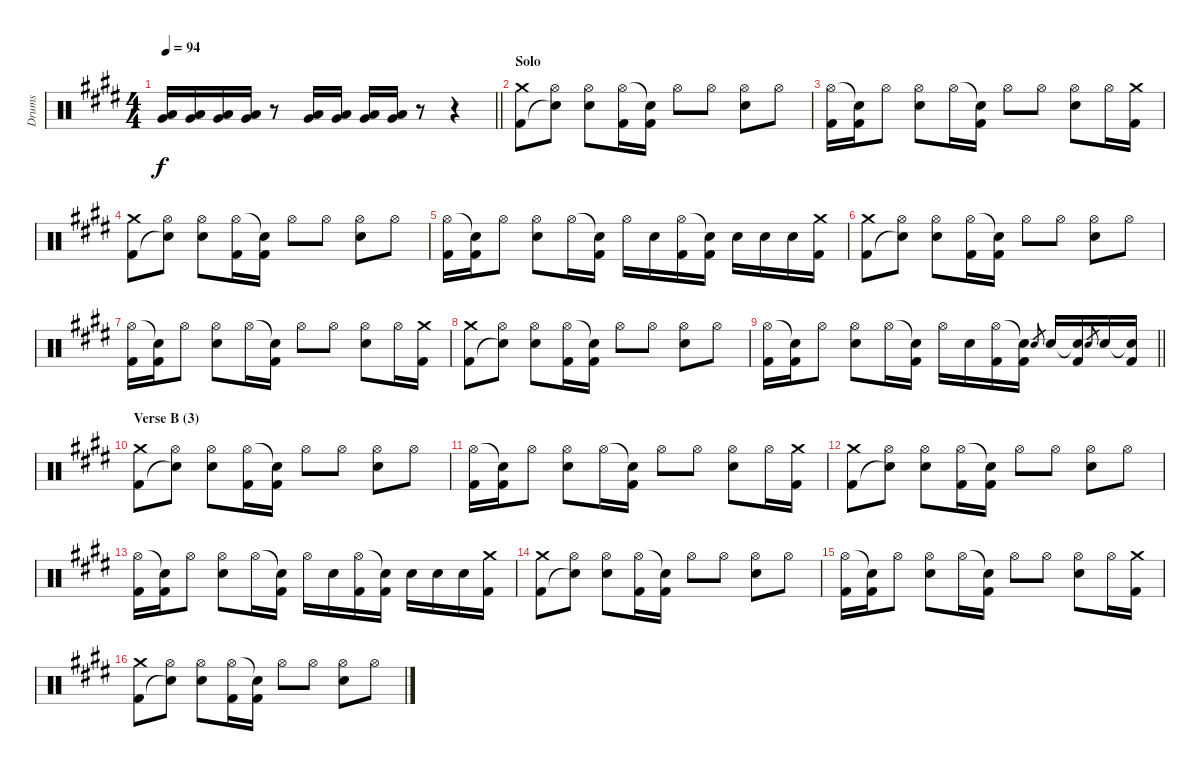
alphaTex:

\track ("Drums" "Drums") {instrument percussion}
\staff {score}
\articulation defaults
\ts (4 4)
\tempo 94
\clef neutral
\barLineRight lightlight
\ks c#minor
("Very Low Tom (hit)" "Low Floor Tom (hit)").16{dy f} ("Very Low Tom (hit)" "Low Floor Tom (hit)").16 ("Very Low Tom (hit)" "Low Floor Tom (hit)").16 ("Very Low Tom (hit)" "Low Floor Tom (hit)").16 r.8 ("Very Low Tom (hit)" "Low Floor Tom (hit)").16 ("Very Low Tom (hit)" "Low Floor Tom (hit)").16 ("Very Low Tom (hit)" "Low Floor Tom (hit)").16 ("Very Low Tom (hit)" "Low Floor Tom (hit)").16 r.8 r.4 |
\section ("" "Solo")
("Crash medium (hit)" "Kick (hit) 2").8 ("Hi-Hat (open)" "Snare (hit)"{t}).8 ("Hi-Hat (open)" "Electric Snare (hit)").8 ("Hi-Hat (open)" "Kick (hit) 2").16 ("Snare (hit)"{t} "Kick (hit) 2").16 "Hi-Hat (open)".8 "Hi-Hat (open)".8 ("Hi-Hat (open)" "Electric Snare (hit)").8 "Hi-Hat (open)".8 |
("Hi-Hat (open)" "Kick (hit) 2").16 ("Snare (hit)"{t} "Kick (hit) 2").16 "Hi-Hat (open)".8 ("Hi-Hat (open)" "Electric Snare (hit)").8 "Hi-Hat (open)".16 ("Snare (hit)"{t} "Kick (hit) 2").16 "Hi-Hat (open)".8 "Hi-Hat (open)".8 ("Hi-Hat (open)" "Electric Snare (hit)").8 "Hi-Hat (open)".16 ("Crash medium (hit)" "Kick (hit) 2").16 |
("Crash medium (hit)" "Kick (hit) 2").8 ("Hi-Hat (open)" "Snare (hit)"{t}).8 ("Hi-Hat (open)" "Electric Snare (hit)").8 ("Hi-Hat (open)" "Kick (hit) 2").16 ("Snare (hit)"{t} "Kick (hit) 2").16 "Hi-Hat (open)".8 "Hi-Hat (open)".8 ("Hi-Hat (open)" "Electric Snare (hit)").8 "Hi-Hat (open)".8 |
("Hi-Hat (open)" "Kick (hit) 2").16 ("Snare (hit)"{t} "Kick (hit) 2").16 "Hi-Hat (open)".8 ("Hi-Hat (open)" "Electric Snare (hit)").8 "Hi-Hat (open)".16 ("Snare (hit)"{t} "Kick (hit) 2").16 "Hi-Hat (open)".16 "Electric Snare (hit)".16 ("Hi-Hat (open)" "Kick (hit) 2").16 ("Snare (hit)"{t} "Kick (hit) 2").16 "Electric Snare (hit)".16 "Electric Snare (hit)".16 "Electric Snare (hit)".16 ("Crash medium (hit)" "Kick (hit) 2").16 |
("Crash medium (hit)" "Kick (hit) 2").8 ("Hi-Hat (open)" "Snare (hit)"{t}).8 ("Hi-Hat (open)" "Electric Snare (hit)").8 ("Hi-Hat (open)" "Kick (hit) 2").16 ("Snare (hit)"{t} "Kick (hit) 2").16 "Hi-Hat (open)".8 "Hi-Hat (open)".8 ("Hi-Hat (open)" "Electric Snare (hit)").8 "Hi-Hat (open)".8 |
("Hi-Hat (open)" "Kick (hit) 2").16 ("Snare (hit)"{t} "Kick (hit) 2").16 "Hi-Hat (open)".8 ("Hi-Hat (open)" "Electric Snare (hit)").8 "Hi-Hat (open)".16 ("Snare (hit)"{t} "Kick (hit) 2").16 "Hi-Hat (open)".8 "Hi-Hat (open)".8 ("Hi-Hat (open)" "Electric Snare (hit)").8 "Hi-Hat (open)".16 ("Crash medium (hit)" "Kick (hit) 2").16 |
("Crash medium (hit)" "Kick (hit) 2").8 ("Hi-Hat (open)" "Snare (hit)"{t}).8 ("Hi-Hat (open)" "Electric Snare (hit)").8 ("Hi-Hat (open)" "Kick (hit) 2").16 ("Snare (hit)"{t} "Kick (hit) 2").16 "Hi-Hat (open)".8 "Hi-Hat (open)".8 ("Hi-Hat (open)" "Electric Snare (hit)").8 "Hi-Hat (open)".8 |
\barLineRight lightlight
("Hi-Hat (open)" "Kick (hit) 2").16 ("Snare (hit)"{t} "Kick (hit) 2").16 "Hi-Hat (open)".8 ("Hi-Hat (open)" "Electric Snare (hit)").8 "Hi-Hat (open)".16 ("Snare (hit)"{t} "Kick (hit) 2").16 "Hi-Hat (open)".16 "Electric Snare (hit)".16 ("Hi-Hat (open)" "Kick (hit) 2").16 ("Snare (hit)"{t} "Kick (hit) 2").16 "Electric Snare (hit)".8{gr} "Electric Snare (hit)".16 ("Electric Snare (hit)"{t} "Kick (hit) 2").16 "Electric Snare (hit)".8{gr} "Electric Snare (hit)".16 ("Electric Snare (hit)"{t} "Kick (hit) 2").16 |
\section ("" "Verse B (3)")
("Crash medium (hit)" "Kick (hit) 2").8 ("Hi-Hat (open)" "Snare (hit)"{t}).8 ("Hi-Hat (open)" "Electric Snare (hit)").8 ("Hi-Hat (open)" "Kick (hit) 2").16 ("Snare (hit)"{t} "Kick (hit) 2").16 "Hi-Hat (open)".8 "Hi-Hat (open)".8 ("Hi-Hat (open)" "Electric Snare (hit)").8 "Hi-Hat (open)".8 |
("Hi-Hat (open)" "Kick (hit) 2").16 ("Snare (hit)"{t} "Kick (hit) 2").16 "Hi-Hat (open)".8 ("Hi-Hat (open)" "Electric Snare (hit)").8 "Hi-Hat (open)".16 ("Snare (hit)"{t} "Kick (hit) 2").16 "Hi-Hat (open)".8 "Hi-Hat (open)".8 ("Hi-Hat (open)" "Electric Snare (hit)").8 "Hi-Hat (open)".16 ("Crash medium (hit)" "Kick (hit) 2").16 |
("Crash medium (hit)" "Kick (hit) 2").8 ("Hi-Hat (open)" "Snare (hit)"{t}).8 ("Hi-Hat (open)" "Electric Snare (hit)").8 ("Hi-Hat (open)" "Kick (hit) 2").16 ("Snare (hit)"{t} "Kick (hit) 2").16 "Hi-Hat (open)".8 "Hi-Hat (open)".8 ("Hi-Hat (open)" "Electric Snare (hit)").8 "Hi-Hat (open)".8 |
("Hi-Hat (open)" "Kick (hit) 2").16 ("Snare (hit)"{t} "Kick (hit) 2").16 "Hi-Hat (open)".8 ("Hi-Hat (open)" "Electric Snare (hit)").8 "Hi-Hat (open)".16 ("Snare (hit)"{t} "Kick (hit) 2").16 "Hi-Hat (open)".16 "Electric Snare (hit)".16 ("Hi-Hat (open)" "Kick (hit) 2").16 ("Snare (hit)"{t} "Kick (hit) 2").16 "Electric Snare (hit)".16 "Electric Snare (hit)".16 "Electric Snare (hit)".16 ("Crash medium (hit)" "Kick (hit) 2").16 |
("Crash medium (hit)" "Kick (hit) 2").8 ("Hi-Hat (open)" "Snare (hit)"{t}).8 ("Hi-Hat (open)" "Electric Snare (hit)").8 ("Hi-Hat (open)" "Kick (hit) 2").16 ("Snare (hit)"{t} "Kick (hit) 2").16 "Hi-Hat (open)".8 "Hi-Hat (open)".8 ("Hi-Hat (open)" "Electric Snare (hit)").8 "Hi-Hat (open)".8 |
("Hi-Hat (open)" "Kick (hit) 2").16 ("Snare (hit)"{t} "Kick (hit) 2").16 "Hi-Hat (open)".8 ("Hi-Hat (open)" "Electric Snare (hit)").8 "Hi-Hat (open)".16 ("Snare (hit)"{t} "Kick (hit) 2").16 "Hi-Hat (open)".8 "Hi-Hat (open)".8 ("Hi-Hat (open)" "Electric Snare (hit)").8 "Hi-Hat (open)".16 ("Crash medium (hit)" "Kick (hit) 2").16 |
("Crash medium (hit)" "Kick (hit) 2").8 ("Hi-Hat (open)" "Snare (hit)"{t}).8 ("Hi-Hat (open)" "Electric Snare (hit)").8 ("Hi-Hat (open)" "Kick (hit) 2").16 ("Snare (hit)"{t} "Kick (hit) 2").16 "Hi-Hat (open)".8 "Hi-Hat (open)".8 ("Hi-Hat (open)" "Electric Snare (hit)").8 "Hi-Hat (open)".8
